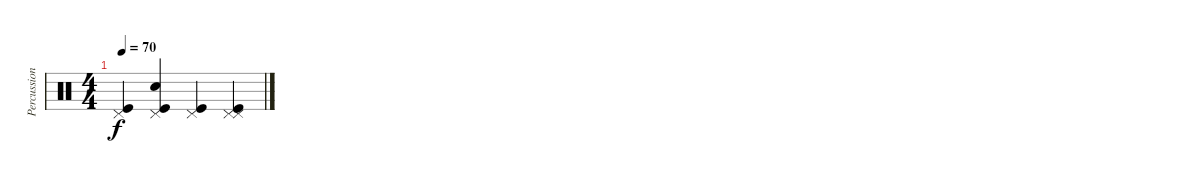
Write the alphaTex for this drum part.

\track ("Percussion" "Percussion") {instrument percussion}
\staff {score}
\articulation defaults
\ts (4 4)
\tempo 70
\clef neutral
\ks c
("Kick (hit)" "Pedal Hi-Hat (hit)").4{dy f} ("Kick (hit)" "Snare (hit) 2" "Pedal Hi-Hat (hit)").4 ("Kick (hit)" "Pedal Hi-Hat (hit)").4 ("Kick (hit)" "Pedal Hi-Hat (hit)" "Pedal Hi-Hat (hit)").4
